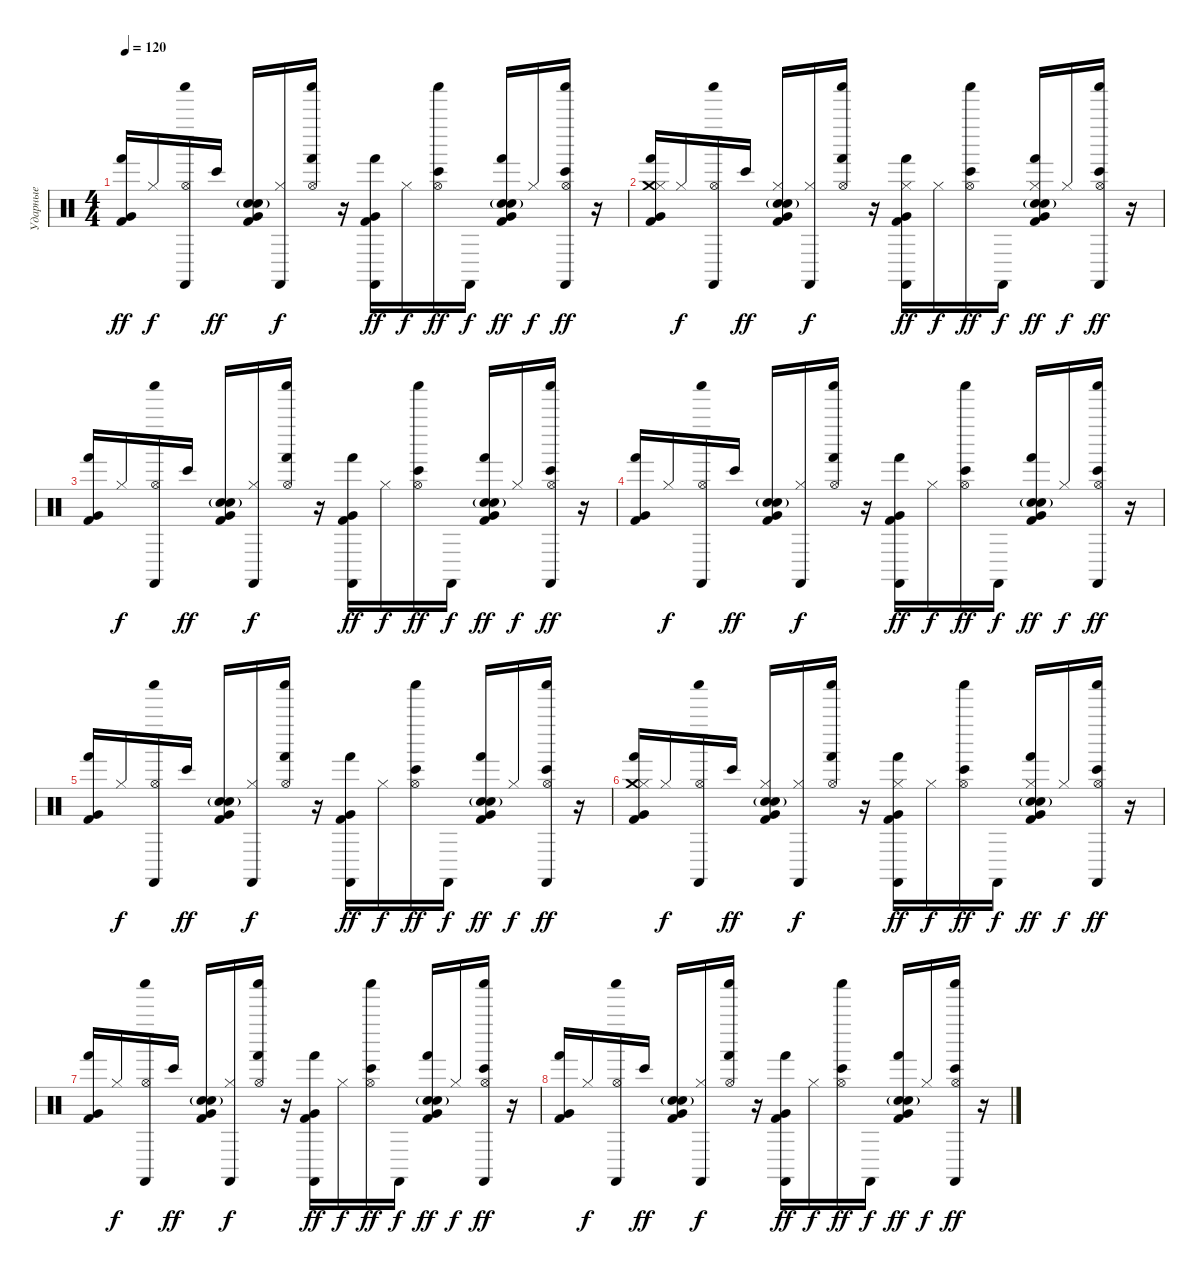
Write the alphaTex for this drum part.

\track ("Ударные" "Ударные") {instrument percussion}
\staff {score}
\articulation defaults
\ts (4 4)
\tempo 120
\clef neutral
\ks c
("Kick (hit) 2" "Very Low Tom (hit)" "Hand (hit)").16{dy ff} "Hi-Hat (closed)".16{dy f} ("Castanets (hit)" "Shaker (hit)" "Hi-Hat (open)").16 "Bongo High (hit)".16{dy ff} ("Kick (hit) 2" "Hand Clap (hit)"{g} "Snare (hit) 2" "Very Low Tom (hit)").16 ("Castanets (hit)" "Hi-Hat (closed)").16{dy f} ("Shaker (hit)" "Hi-Hat (open)" "Hand (hit)").16 r.16 ("Kick (hit) 2" "Castanets (hit)" "Very Low Tom (hit)" "Hand (hit)").16{dy ff} "Hi-Hat (closed)".16{dy f} ("Shaker (hit)" "Hi-Hat (open)" "Bongo High (hit)").16{dy ff} "Castanets (hit)".16{dy f} ("Kick (hit) 2" "Hand Clap (hit)"{g} "Snare (hit) 2" "Very Low Tom (hit)" "Hand (hit)").16{dy ff} "Hi-Hat (closed)".16{dy f} ("Castanets (hit)" "Shaker (hit)" "Hi-Hat (open)" "Bongo High (hit)").16{dy ff} r.16 |
("Kick (hit) 2" "Crash medium (hit)" "Hi-Hat (closed)" "Very Low Tom (hit)" "Hand (hit)").16 "Hi-Hat (closed)".16{dy f} ("Castanets (hit)" "Shaker (hit)" "Hi-Hat (open)").16 "Bongo High (hit)".16{dy ff} ("Kick (hit) 2" "Hand Clap (hit)"{g} "Snare (hit) 2" "Hi-Hat (closed)" "Very Low Tom (hit)").16 ("Castanets (hit)" "Hi-Hat (closed)").16{dy f} ("Shaker (hit)" "Hi-Hat (open)" "Hand (hit)").16 r.16 ("Kick (hit) 2" "Castanets (hit)" "Hi-Hat (closed)" "Very Low Tom (hit)" "Hand (hit)").16{dy ff} "Hi-Hat (closed)".16{dy f} ("Shaker (hit)" "Hi-Hat (open)" "Bongo High (hit)").16{dy ff} "Castanets (hit)".16{dy f} ("Kick (hit) 2" "Hand Clap (hit)"{g} "Snare (hit) 2" "Hi-Hat (closed)" "Very Low Tom (hit)" "Hand (hit)").16{dy ff} "Hi-Hat (closed)".16{dy f} ("Castanets (hit)" "Shaker (hit)" "Hi-Hat (open)" "Bongo High (hit)").16{dy ff} r.16 |
("Kick (hit) 2" "Very Low Tom (hit)" "Hand (hit)").16 "Hi-Hat (closed)".16{dy f} ("Castanets (hit)" "Shaker (hit)" "Hi-Hat (open)").16 "Bongo High (hit)".16{dy ff} ("Kick (hit) 2" "Hand Clap (hit)"{g} "Snare (hit) 2" "Very Low Tom (hit)").16 ("Castanets (hit)" "Hi-Hat (closed)").16{dy f} ("Shaker (hit)" "Hi-Hat (open)" "Hand (hit)").16 r.16 ("Kick (hit) 2" "Castanets (hit)" "Very Low Tom (hit)" "Hand (hit)").16{dy ff} "Hi-Hat (closed)".16{dy f} ("Shaker (hit)" "Hi-Hat (open)" "Bongo High (hit)").16{dy ff} "Castanets (hit)".16{dy f} ("Kick (hit) 2" "Hand Clap (hit)"{g} "Snare (hit) 2" "Very Low Tom (hit)" "Hand (hit)").16{dy ff} "Hi-Hat (closed)".16{dy f} ("Castanets (hit)" "Shaker (hit)" "Hi-Hat (open)" "Bongo High (hit)").16{dy ff} r.16 |
("Kick (hit) 2" "Very Low Tom (hit)" "Hand (hit)").16 "Hi-Hat (closed)".16{dy f} ("Castanets (hit)" "Shaker (hit)" "Hi-Hat (open)").16 "Bongo High (hit)".16{dy ff} ("Kick (hit) 2" "Hand Clap (hit)"{g} "Snare (hit) 2" "Very Low Tom (hit)").16 ("Castanets (hit)" "Hi-Hat (closed)").16{dy f} ("Shaker (hit)" "Hi-Hat (open)" "Hand (hit)").16 r.16 ("Kick (hit) 2" "Castanets (hit)" "Very Low Tom (hit)" "Hand (hit)").16{dy ff} "Hi-Hat (closed)".16{dy f} ("Shaker (hit)" "Hi-Hat (open)" "Bongo High (hit)").16{dy ff} "Castanets (hit)".16{dy f} ("Kick (hit) 2" "Hand Clap (hit)"{g} "Snare (hit) 2" "Very Low Tom (hit)" "Hand (hit)").16{dy ff} "Hi-Hat (closed)".16{dy f} ("Castanets (hit)" "Shaker (hit)" "Hi-Hat (open)" "Bongo High (hit)").16{dy ff} r.16 |
("Kick (hit) 2" "Very Low Tom (hit)" "Hand (hit)").16 "Hi-Hat (closed)".16{dy f} ("Castanets (hit)" "Shaker (hit)" "Hi-Hat (open)").16 "Bongo High (hit)".16{dy ff} ("Kick (hit) 2" "Hand Clap (hit)"{g} "Snare (hit) 2" "Very Low Tom (hit)").16 ("Castanets (hit)" "Hi-Hat (closed)").16{dy f} ("Shaker (hit)" "Hi-Hat (open)" "Hand (hit)").16 r.16 ("Kick (hit) 2" "Castanets (hit)" "Very Low Tom (hit)" "Hand (hit)").16{dy ff} "Hi-Hat (closed)".16{dy f} ("Shaker (hit)" "Hi-Hat (open)" "Bongo High (hit)").16{dy ff} "Castanets (hit)".16{dy f} ("Kick (hit) 2" "Hand Clap (hit)"{g} "Snare (hit) 2" "Very Low Tom (hit)" "Hand (hit)").16{dy ff} "Hi-Hat (closed)".16{dy f} ("Castanets (hit)" "Shaker (hit)" "Hi-Hat (open)" "Bongo High (hit)").16{dy ff} r.16 |
("Kick (hit) 2" "Crash medium (hit)" "Hi-Hat (closed)" "Very Low Tom (hit)" "Hand (hit)").16 "Hi-Hat (closed)".16{dy f} ("Castanets (hit)" "Shaker (hit)" "Hi-Hat (open)").16 "Bongo High (hit)".16{dy ff} ("Kick (hit) 2" "Hand Clap (hit)"{g} "Snare (hit) 2" "Hi-Hat (closed)" "Very Low Tom (hit)").16 ("Castanets (hit)" "Hi-Hat (closed)").16{dy f} ("Shaker (hit)" "Hi-Hat (open)" "Hand (hit)").16 r.16 ("Kick (hit) 2" "Castanets (hit)" "Hi-Hat (closed)" "Very Low Tom (hit)" "Hand (hit)").16{dy ff} "Hi-Hat (closed)".16{dy f} ("Shaker (hit)" "Hi-Hat (open)" "Bongo High (hit)").16{dy ff} "Castanets (hit)".16{dy f} ("Kick (hit) 2" "Hand Clap (hit)"{g} "Snare (hit) 2" "Hi-Hat (closed)" "Very Low Tom (hit)" "Hand (hit)").16{dy ff} "Hi-Hat (closed)".16{dy f} ("Castanets (hit)" "Shaker (hit)" "Hi-Hat (open)" "Bongo High (hit)").16{dy ff} r.16 |
("Kick (hit) 2" "Very Low Tom (hit)" "Hand (hit)").16 "Hi-Hat (closed)".16{dy f} ("Castanets (hit)" "Shaker (hit)" "Hi-Hat (open)").16 "Bongo High (hit)".16{dy ff} ("Kick (hit) 2" "Hand Clap (hit)"{g} "Snare (hit) 2" "Very Low Tom (hit)").16 ("Castanets (hit)" "Hi-Hat (closed)").16{dy f} ("Shaker (hit)" "Hi-Hat (open)" "Hand (hit)").16 r.16 ("Kick (hit) 2" "Castanets (hit)" "Very Low Tom (hit)" "Hand (hit)").16{dy ff} "Hi-Hat (closed)".16{dy f} ("Shaker (hit)" "Hi-Hat (open)" "Bongo High (hit)").16{dy ff} "Castanets (hit)".16{dy f} ("Kick (hit) 2" "Hand Clap (hit)"{g} "Snare (hit) 2" "Very Low Tom (hit)" "Hand (hit)").16{dy ff} "Hi-Hat (closed)".16{dy f} ("Castanets (hit)" "Shaker (hit)" "Hi-Hat (open)" "Bongo High (hit)").16{dy ff} r.16 |
("Kick (hit) 2" "Very Low Tom (hit)" "Hand (hit)").16 "Hi-Hat (closed)".16{dy f} ("Castanets (hit)" "Shaker (hit)" "Hi-Hat (open)").16 "Bongo High (hit)".16{dy ff} ("Kick (hit) 2" "Hand Clap (hit)"{g} "Snare (hit) 2" "Very Low Tom (hit)").16 ("Castanets (hit)" "Hi-Hat (closed)").16{dy f} ("Shaker (hit)" "Hi-Hat (open)" "Hand (hit)").16 r.16 ("Kick (hit) 2" "Castanets (hit)" "Very Low Tom (hit)" "Hand (hit)").16{dy ff} "Hi-Hat (closed)".16{dy f} ("Shaker (hit)" "Hi-Hat (open)" "Bongo High (hit)").16{dy ff} "Castanets (hit)".16{dy f} ("Kick (hit) 2" "Hand Clap (hit)"{g} "Snare (hit) 2" "Very Low Tom (hit)" "Hand (hit)").16{dy ff} "Hi-Hat (closed)".16{dy f} ("Castanets (hit)" "Shaker (hit)" "Hi-Hat (open)" "Bongo High (hit)").16{dy ff} r.16
